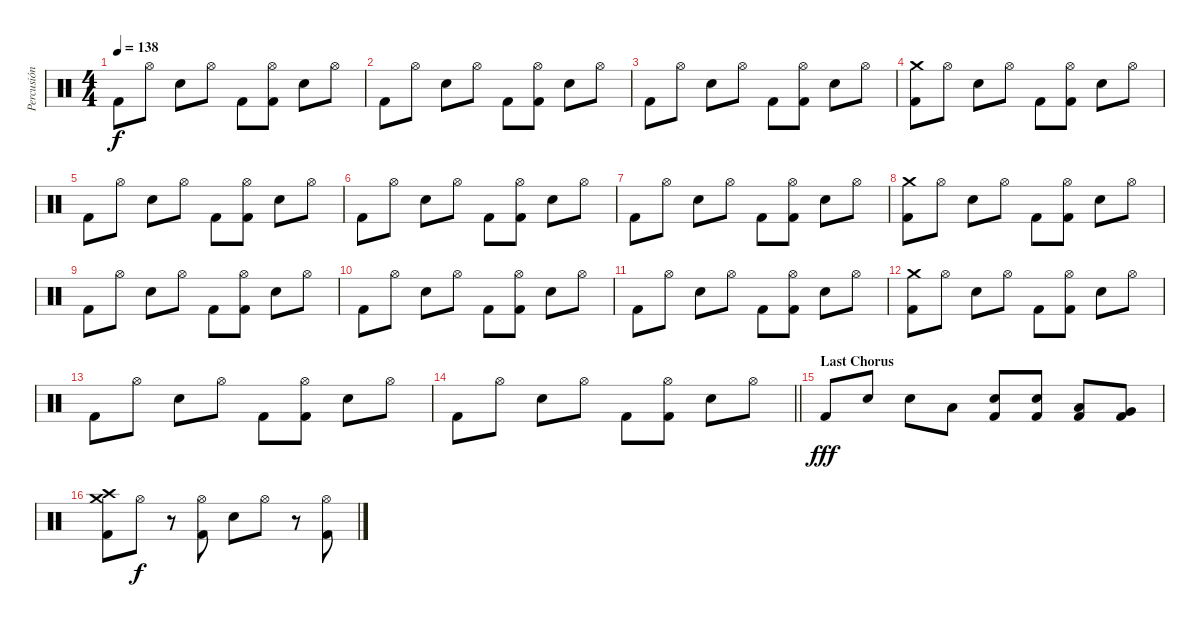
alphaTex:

\track ("Percusión" "Percusión") {instrument percussion}
\staff {score}
\articulation defaults
\ts (4 4)
\tempo 138
\clef neutral
\ks c "Kick (hit) 2".8{dy f} "Hi-Hat (open)".8 "Electric Snare (hit)".8 "Hi-Hat (open)".8 "Kick (hit) 2".8
("Hi-Hat (open)" "Kick (hit) 2").8 "Electric Snare (hit)".8 "Hi-Hat (open)".8 |
"Kick (hit) 2".8 "Hi-Hat (open)".8 "Electric Snare (hit)".8 "Hi-Hat (open)".8 "Kick (hit) 2".8 ("Hi-Hat (open)" "Kick (hit) 2").8 "Electric Snare (hit)".8 "Hi-Hat (open)".8 |
"Kick (hit) 2".8 "Hi-Hat (open)".8 "Electric Snare (hit)".8 "Hi-Hat (open)".8 "Kick (hit) 2".8 ("Hi-Hat (open)" "Kick (hit) 2").8 "Electric Snare (hit)".8 "Hi-Hat (open)".8 |
("Crash medium (hit)" "Kick (hit) 2").8 "Hi-Hat (open)".8 "Electric Snare (hit)".8 "Hi-Hat (open)".8 "Kick (hit) 2".8 ("Hi-Hat (open)" "Kick (hit) 2").8 "Electric Snare (hit)".8 "Hi-Hat (open)".8 |
"Kick (hit) 2".8 "Hi-Hat (open)".8 "Electric Snare (hit)".8 "Hi-Hat (open)".8 "Kick (hit) 2".8 ("Hi-Hat (open)" "Kick (hit) 2").8 "Electric Snare (hit)".8 "Hi-Hat (open)".8 |
"Kick (hit) 2".8 "Hi-Hat (open)".8 "Electric Snare (hit)".8 "Hi-Hat (open)".8 "Kick (hit) 2".8 ("Hi-Hat (open)" "Kick (hit) 2").8 "Electric Snare (hit)".8 "Hi-Hat (open)".8 |
"Kick (hit) 2".8 "Hi-Hat (open)".8 "Electric Snare (hit)".8 "Hi-Hat (open)".8 "Kick (hit) 2".8 ("Hi-Hat (open)" "Kick (hit) 2").8 "Electric Snare (hit)".8 "Hi-Hat (open)".8 |
("Crash medium (hit)" "Kick (hit) 2").8 "Hi-Hat (open)".8 "Electric Snare (hit)".8 "Hi-Hat (open)".8 "Kick (hit) 2".8 ("Hi-Hat (open)" "Kick (hit) 2").8 "Electric Snare (hit)".8 "Hi-Hat (open)".8 |
"Kick (hit) 2".8 "Hi-Hat (open)".8 "Electric Snare (hit)".8 "Hi-Hat (open)".8 "Kick (hit) 2".8 ("Hi-Hat (open)" "Kick (hit) 2").8 "Electric Snare (hit)".8 "Hi-Hat (open)".8 |
"Kick (hit) 2".8 "Hi-Hat (open)".8 "Electric Snare (hit)".8 "Hi-Hat (open)".8 "Kick (hit) 2".8 ("Hi-Hat (open)" "Kick (hit) 2").8 "Electric Snare (hit)".8 "Hi-Hat (open)".8 |
"Kick (hit) 2".8 "Hi-Hat (open)".8 "Electric Snare (hit)".8 "Hi-Hat (open)".8 "Kick (hit) 2".8 ("Hi-Hat (open)" "Kick (hit) 2").8 "Electric Snare (hit)".8 "Hi-Hat (open)".8 |
("Crash medium (hit)" "Kick (hit) 2").8 "Hi-Hat (open)".8 "Electric Snare (hit)".8 "Hi-Hat (open)".8 "Kick (hit) 2".8 ("Hi-Hat (open)" "Kick (hit) 2").8 "Electric Snare (hit)".8 "Hi-Hat (open)".8 |
"Kick (hit) 2".8 "Hi-Hat (open)".8 "Electric Snare (hit)".8 "Hi-Hat (open)".8 "Kick (hit) 2".8 ("Hi-Hat (open)" "Kick (hit) 2").8 "Electric Snare (hit)".8 "Hi-Hat (open)".8 |
\barLineRight lightlight "Kick (hit) 2".8 "Hi-Hat (open)".8 "Electric Snare (hit)".8 "Hi-Hat (open)".8 "Kick (hit) 2".8
("Hi-Hat (open)" "Kick (hit) 2").8 "Electric Snare (hit)".8 "Hi-Hat (open)".8 |
\section ("" "Last Chorus")
"Kick (hit) 2".8{dy fff} "Electric Snare (hit)".8 "Electric Snare (hit)".8 "Low Tom (hit)".8 ("Electric Snare (hit)" "Kick (hit) 2").8 ("Electric Snare (hit)" "Kick (hit) 2").8 ("Low Tom (hit)" "Kick (hit) 2").8 ("Very Low Tom (hit)" "Kick (hit) 2").8 |
("Crash medium (hit)" "Crash high (hit)" "Kick (hit) 2").8 "Hi-Hat (open)".8{dy f} r.8 ("Hi-Hat (open)" "Kick (hit) 2").8 "Electric Snare (hit)".8 "Hi-Hat (open)".8 r.8 ("Hi-Hat (open)" "Kick (hit) 2").8
